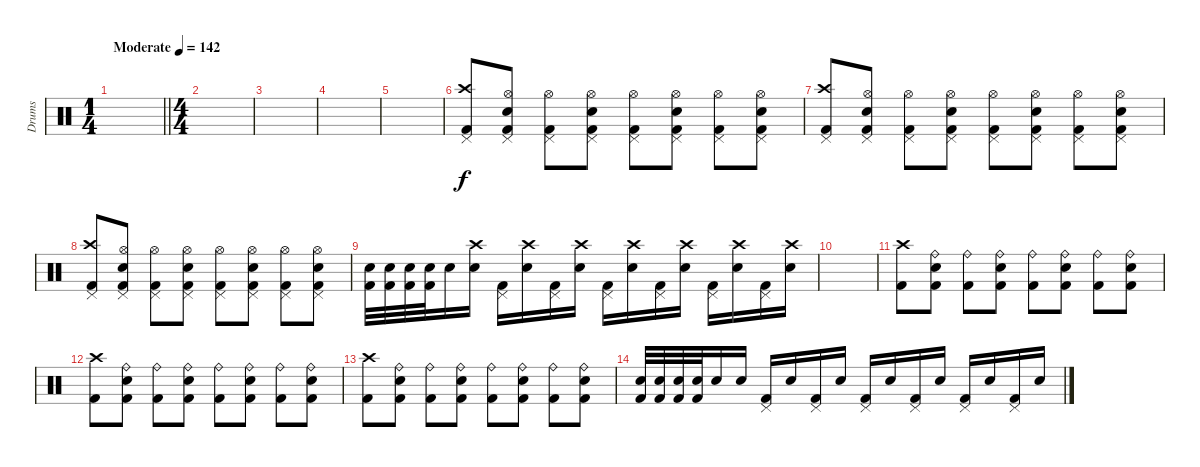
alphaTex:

\track ("Drums" "Drums") {instrument percussion}
\staff
\articulation defaults
\ts (1 4)
\tempo (142 "Moderate")
\clef neutral
\barLineRight lightlight
\ks c
|
\ts (4 4)
|
|
|
|
("Pedal Hi-Hat (hit)" "Crash high (hit)" "Kick (hit) 2").8 ("Pedal Hi-Hat (hit)" "Hi-Hat (open)" "Snare (hit) 2" "Kick (hit) 2").8 ("Pedal Hi-Hat (hit)" "Hi-Hat (open)" "Kick (hit) 2").8 ("Pedal Hi-Hat (hit)" "Hi-Hat (open)" "Snare (hit) 2" "Kick (hit) 2").8 ("Pedal Hi-Hat (hit)" "Hi-Hat (open)" "Kick (hit) 2").8 ("Pedal Hi-Hat (hit)" "Hi-Hat (open)" "Snare (hit) 2" "Kick (hit) 2").8 ("Pedal Hi-Hat (hit)" "Hi-Hat (open)" "Kick (hit) 2").8 ("Pedal Hi-Hat (hit)" "Hi-Hat (open)" "Snare (hit) 2" "Kick (hit) 2").8 |
("Pedal Hi-Hat (hit)" "Crash high (hit)" "Kick (hit) 2").8 ("Pedal Hi-Hat (hit)" "Hi-Hat (open)" "Snare (hit) 2" "Kick (hit) 2").8 ("Pedal Hi-Hat (hit)" "Hi-Hat (open)" "Kick (hit) 2").8 ("Pedal Hi-Hat (hit)" "Hi-Hat (open)" "Snare (hit) 2" "Kick (hit) 2").8 ("Pedal Hi-Hat (hit)" "Hi-Hat (open)" "Kick (hit) 2").8 ("Pedal Hi-Hat (hit)" "Hi-Hat (open)" "Snare (hit) 2" "Kick (hit) 2").8 ("Pedal Hi-Hat (hit)" "Hi-Hat (open)" "Kick (hit) 2").8 ("Pedal Hi-Hat (hit)" "Hi-Hat (open)" "Snare (hit) 2" "Kick (hit) 2").8 |
("Pedal Hi-Hat (hit)" "Crash high (hit)" "Kick (hit) 2").8 ("Pedal Hi-Hat (hit)" "Hi-Hat (open)" "Snare (hit) 2" "Kick (hit) 2").8 ("Pedal Hi-Hat (hit)" "Hi-Hat (open)" "Kick (hit) 2").8 ("Pedal Hi-Hat (hit)" "Hi-Hat (open)" "Snare (hit) 2" "Kick (hit) 2").8 ("Pedal Hi-Hat (hit)" "Hi-Hat (open)" "Kick (hit) 2").8 ("Pedal Hi-Hat (hit)" "Hi-Hat (open)" "Snare (hit) 2" "Kick (hit) 2").8 ("Pedal Hi-Hat (hit)" "Hi-Hat (open)" "Kick (hit) 2").8 ("Pedal Hi-Hat (hit)" "Hi-Hat (open)" "Snare (hit) 2" "Kick (hit) 2").8 |
("Snare (hit) 2" "Kick (hit) 2").32 ("Snare (hit) 2" "Kick (hit) 2").32 ("Snare (hit) 2" "Kick (hit) 2").32 ("Snare (hit) 2" "Kick (hit) 2").32 "Snare (hit) 2".16 ("Crash high (hit)" "Snare (hit) 2").16 ("Pedal Hi-Hat (hit)" "Kick (hit) 2").16 ("Crash high (hit)" "Snare (hit) 2").16 ("Pedal Hi-Hat (hit)" "Kick (hit) 2").16 ("Crash high (hit)" "Snare (hit) 2").16 ("Pedal Hi-Hat (hit)" "Kick (hit) 2").16 ("Crash high (hit)" "Snare (hit) 2").16 ("Pedal Hi-Hat (hit)" "Kick (hit) 2").16 ("Crash high (hit)" "Snare (hit) 2").16 ("Pedal Hi-Hat (hit)" "Kick (hit) 2").16 ("Crash high (hit)" "Snare (hit) 2").16 ("Pedal Hi-Hat (hit)" "Kick (hit) 2").16 ("Crash high (hit)" "Snare (hit) 2").16 |
|
("Crash high (hit)" "Kick (hit) 2").8 ("Ride (bell)" "Snare (hit) 2" "Kick (hit) 2").8 ("Ride (bell)" "Kick (hit) 2").8 ("Ride (bell)" "Snare (hit) 2" "Kick (hit) 2").8 ("Ride (bell)" "Kick (hit) 2").8 ("Ride (bell)" "Snare (hit) 2" "Kick (hit) 2").8 ("Ride (bell)" "Kick (hit) 2").8 ("Ride (bell)" "Snare (hit) 2" "Kick (hit) 2").8 |
("Crash high (hit)" "Kick (hit) 2").8 ("Ride (bell)" "Snare (hit) 2" "Kick (hit) 2").8 ("Ride (bell)" "Kick (hit) 2").8 ("Ride (bell)" "Snare (hit) 2" "Kick (hit) 2").8 ("Ride (bell)" "Kick (hit) 2").8 ("Ride (bell)" "Snare (hit) 2" "Kick (hit) 2").8 ("Ride (bell)" "Kick (hit) 2").8 ("Ride (bell)" "Snare (hit) 2" "Kick (hit) 2").8 |
("Crash high (hit)" "Kick (hit) 2").8 ("Ride (bell)" "Snare (hit) 2" "Kick (hit) 2").8 ("Ride (bell)" "Kick (hit) 2").8 ("Ride (bell)" "Snare (hit) 2" "Kick (hit) 2").8 ("Ride (bell)" "Kick (hit) 2").8 ("Ride (bell)" "Snare (hit) 2" "Kick (hit) 2").8 ("Ride (bell)" "Kick (hit) 2").8 ("Ride (bell)" "Snare (hit) 2" "Kick (hit) 2").8 |
("Snare (hit) 2" "Kick (hit) 2").32 ("Snare (hit) 2" "Kick (hit) 2").32 ("Snare (hit) 2" "Kick (hit) 2").32 ("Snare (hit) 2" "Kick (hit) 2").32 "Snare (hit) 2".16 "Snare (hit) 2".16 ("Pedal Hi-Hat (hit)" "Kick (hit) 2").16 "Snare (hit) 2".16 ("Pedal Hi-Hat (hit)" "Kick (hit) 2").16 "Snare (hit) 2".16 ("Pedal Hi-Hat (hit)" "Kick (hit) 2").16 "Snare (hit) 2".16 ("Pedal Hi-Hat (hit)" "Kick (hit) 2").16 "Snare (hit) 2".16 ("Pedal Hi-Hat (hit)" "Kick (hit) 2").16 "Snare (hit) 2".16 ("Pedal Hi-Hat (hit)" "Kick (hit) 2").16 "Snare (hit) 2".16
